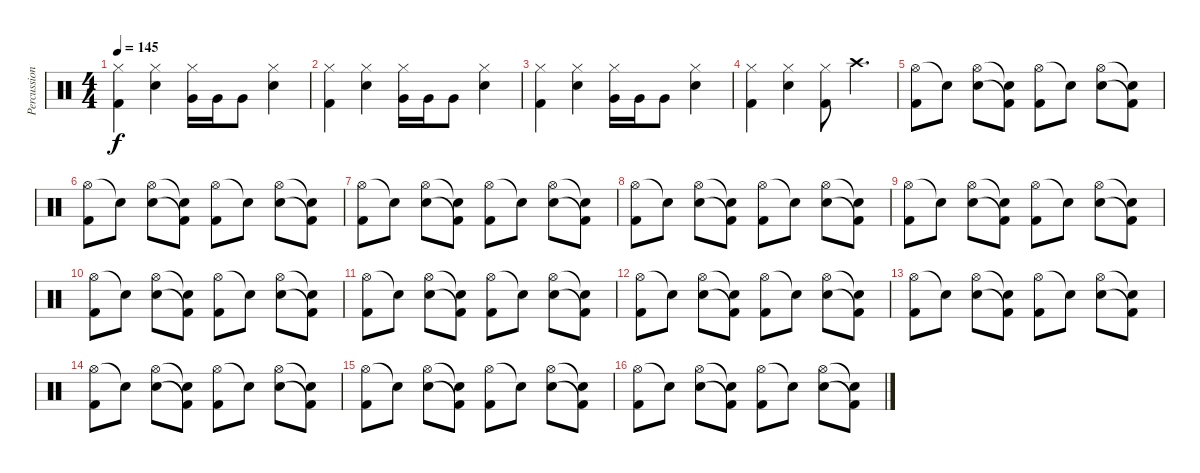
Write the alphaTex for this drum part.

\track ("Percussion" "Percussion") {instrument percussion}
\staff {score}
\articulation defaults
\ts (4 4)
\tempo 145
\clef neutral
\ks c
("Hi-Hat (closed)" "Kick (hit) 2").4{dy f} ("Hi-Hat (closed)" "Electric Snare (hit)").4 ("Hi-Hat (closed)" "Very Low Tom (hit)").16 "Very Low Tom (hit)".16 "Very Low Tom (hit)".8 ("Hi-Hat (closed)" "Electric Snare (hit)").4 |
("Hi-Hat (closed)" "Kick (hit) 2").4 ("Hi-Hat (closed)" "Electric Snare (hit)").4 ("Hi-Hat (closed)" "Very Low Tom (hit)").16 "Very Low Tom (hit)".16 "Very Low Tom (hit)".8 ("Hi-Hat (closed)" "Electric Snare (hit)").4 |
("Hi-Hat (closed)" "Kick (hit) 2").4 ("Hi-Hat (closed)" "Electric Snare (hit)").4 ("Hi-Hat (closed)" "Very Low Tom (hit)").16 "Very Low Tom (hit)".16 "Very Low Tom (hit)".8 ("Hi-Hat (closed)" "Electric Snare (hit)").4 |
("Hi-Hat (closed)" "Kick (hit) 2").4 ("Hi-Hat (closed)" "Electric Snare (hit)").4 ("Hi-Hat (closed)" "Kick (hit) 2").8 "Crash high (hit)".4{d} |
("Hi-Hat (open)" "Kick (hit) 2").8 "Snare (hit)"{t}.8 ("Hi-Hat (open)" "Electric Snare (hit)").8 ("Snare (hit)"{t} "Kick (hit) 2"{t}).8 ("Hi-Hat (open)" "Kick (hit) 2").8 "Snare (hit)"{t}.8 ("Hi-Hat (open)" "Electric Snare (hit)").8 ("Snare (hit)"{t} "Kick (hit) 2"{t}).8 |
("Hi-Hat (open)" "Kick (hit) 2").8 "Snare (hit)"{t}.8 ("Hi-Hat (open)" "Electric Snare (hit)").8 ("Snare (hit)"{t} "Kick (hit) 2"{t}).8 ("Hi-Hat (open)" "Kick (hit) 2").8 "Snare (hit)"{t}.8 ("Hi-Hat (open)" "Electric Snare (hit)").8 ("Snare (hit)"{t} "Kick (hit) 2"{t}).8 |
("Hi-Hat (open)" "Kick (hit) 2").8 "Snare (hit)"{t}.8 ("Hi-Hat (open)" "Electric Snare (hit)").8 ("Snare (hit)"{t} "Kick (hit) 2"{t}).8 ("Hi-Hat (open)" "Kick (hit) 2").8 "Snare (hit)"{t}.8 ("Hi-Hat (open)" "Electric Snare (hit)").8 ("Snare (hit)"{t} "Kick (hit) 2"{t}).8 |
("Hi-Hat (open)" "Kick (hit) 2").8 "Snare (hit)"{t}.8 ("Hi-Hat (open)" "Electric Snare (hit)").8 ("Snare (hit)"{t} "Kick (hit) 2"{t}).8 ("Hi-Hat (open)" "Kick (hit) 2").8 "Snare (hit)"{t}.8 ("Hi-Hat (open)" "Electric Snare (hit)").8 ("Snare (hit)"{t} "Kick (hit) 2"{t}).8 |
("Hi-Hat (open)" "Kick (hit) 2").8 "Snare (hit)"{t}.8 ("Hi-Hat (open)" "Electric Snare (hit)").8 ("Snare (hit)"{t} "Kick (hit) 2"{t}).8 ("Hi-Hat (open)" "Kick (hit) 2").8 "Snare (hit)"{t}.8 ("Hi-Hat (open)" "Electric Snare (hit)").8 ("Snare (hit)"{t} "Kick (hit) 2"{t}).8 |
("Hi-Hat (open)" "Kick (hit) 2").8 "Snare (hit)"{t}.8 ("Hi-Hat (open)" "Electric Snare (hit)").8 ("Snare (hit)"{t} "Kick (hit) 2"{t}).8 ("Hi-Hat (open)" "Kick (hit) 2").8 "Snare (hit)"{t}.8 ("Hi-Hat (open)" "Electric Snare (hit)").8 ("Snare (hit)"{t} "Kick (hit) 2"{t}).8 |
("Hi-Hat (open)" "Kick (hit) 2").8 "Snare (hit)"{t}.8 ("Hi-Hat (open)" "Electric Snare (hit)").8 ("Snare (hit)"{t} "Kick (hit) 2"{t}).8 ("Hi-Hat (open)" "Kick (hit) 2").8 "Snare (hit)"{t}.8 ("Hi-Hat (open)" "Electric Snare (hit)").8 ("Snare (hit)"{t} "Kick (hit) 2"{t}).8 |
("Hi-Hat (open)" "Kick (hit) 2").8 "Snare (hit)"{t}.8 ("Hi-Hat (open)" "Electric Snare (hit)").8 ("Snare (hit)"{t} "Kick (hit) 2"{t}).8 ("Hi-Hat (open)" "Kick (hit) 2").8 "Snare (hit)"{t}.8 ("Hi-Hat (open)" "Electric Snare (hit)").8 ("Snare (hit)"{t} "Kick (hit) 2"{t}).8 |
("Hi-Hat (open)" "Kick (hit) 2").8 "Snare (hit)"{t}.8 ("Hi-Hat (open)" "Electric Snare (hit)").8 ("Snare (hit)"{t} "Kick (hit) 2"{t}).8 ("Hi-Hat (open)" "Kick (hit) 2").8 "Snare (hit)"{t}.8 ("Hi-Hat (open)" "Electric Snare (hit)").8 ("Snare (hit)"{t} "Kick (hit) 2"{t}).8 |
("Hi-Hat (open)" "Kick (hit) 2").8 "Snare (hit)"{t}.8 ("Hi-Hat (open)" "Electric Snare (hit)").8 ("Snare (hit)"{t} "Kick (hit) 2"{t}).8 ("Hi-Hat (open)" "Kick (hit) 2").8 "Snare (hit)"{t}.8 ("Hi-Hat (open)" "Electric Snare (hit)").8 ("Snare (hit)"{t} "Kick (hit) 2"{t}).8 |
("Hi-Hat (open)" "Kick (hit) 2").8 "Snare (hit)"{t}.8 ("Hi-Hat (open)" "Electric Snare (hit)").8 ("Snare (hit)"{t} "Kick (hit) 2"{t}).8 ("Hi-Hat (open)" "Kick (hit) 2").8 "Snare (hit)"{t}.8 ("Hi-Hat (open)" "Electric Snare (hit)").8 ("Snare (hit)"{t} "Kick (hit) 2"{t}).8 |
("Hi-Hat (open)" "Kick (hit) 2").8 "Snare (hit)"{t}.8 ("Hi-Hat (open)" "Electric Snare (hit)").8 ("Snare (hit)"{t} "Kick (hit) 2"{t}).8 ("Hi-Hat (open)" "Kick (hit) 2").8 "Snare (hit)"{t}.8 ("Hi-Hat (open)" "Electric Snare (hit)").8 ("Snare (hit)"{t} "Kick (hit) 2"{t}).8
